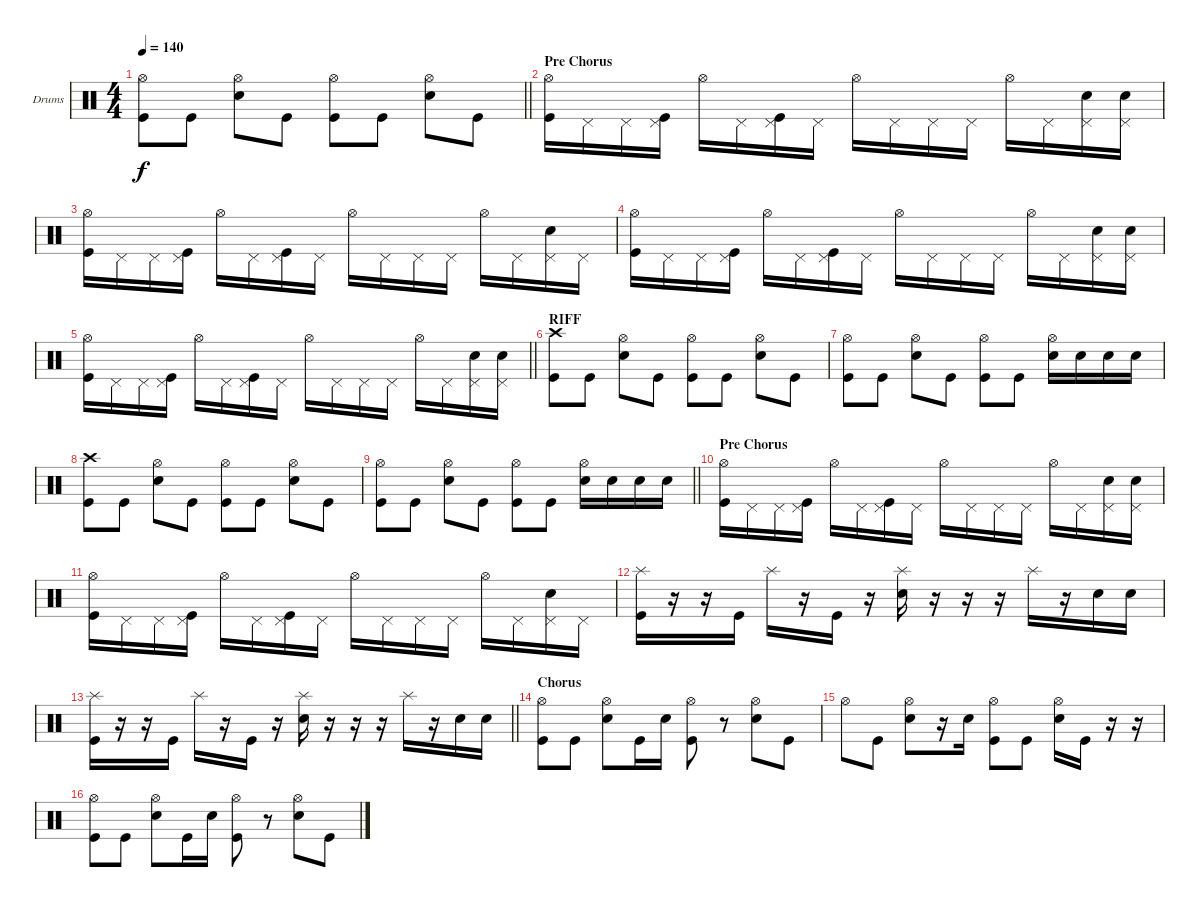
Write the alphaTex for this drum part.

\bracketExtendMode groupsimilarinstruments
\firstSystemTrackNameOrientation horizontal
\otherSystemsTrackNameOrientation horizontal
\track ("Dave McClain" "Drums") {instrument percussion}
\staff {score}
\articulation defaults
\ts (4 4)
\tempo 140
\clef neutral
\barLineRight lightlight
\ks c
("Hi-Hat (open)" "Kick (hit)").8{dy f} "Kick (hit)".8 ("Hi-Hat (open)" "Snare (hit) 2").8 "Kick (hit)".8 ("Hi-Hat (open)" "Kick (hit)").8 "Kick (hit)".8 ("Hi-Hat (open)" "Snare (hit) 2").8 "Kick (hit)".8 |
\section ("" "Pre Chorus")
("Hi-Hat (open)" "Kick (hit)").16 "Pedal Hi-Hat (hit)".16 "Pedal Hi-Hat (hit)".16 ("Pedal Hi-Hat (hit)" "Kick (hit)").16 "Hi-Hat (open)".16 "Pedal Hi-Hat (hit)".16 ("Pedal Hi-Hat (hit)" "Kick (hit)").16 "Pedal Hi-Hat (hit)".16 "Hi-Hat (open)".16 "Pedal Hi-Hat (hit)".16 "Pedal Hi-Hat (hit)".16 "Pedal Hi-Hat (hit)".16 "Hi-Hat (open)".16 "Pedal Hi-Hat (hit)".16 ("Pedal Hi-Hat (hit)" "Snare (hit) 2").16 ("Pedal Hi-Hat (hit)" "Snare (hit) 2").16 |
("Hi-Hat (open)" "Kick (hit)").16 "Pedal Hi-Hat (hit)".16 "Pedal Hi-Hat (hit)".16 ("Pedal Hi-Hat (hit)" "Kick (hit)").16 "Hi-Hat (open)".16 "Pedal Hi-Hat (hit)".16 ("Pedal Hi-Hat (hit)" "Kick (hit)").16 "Pedal Hi-Hat (hit)".16 "Hi-Hat (open)".16 "Pedal Hi-Hat (hit)".16 "Pedal Hi-Hat (hit)".16 "Pedal Hi-Hat (hit)".16 "Hi-Hat (open)".16 "Pedal Hi-Hat (hit)".16 ("Pedal Hi-Hat (hit)" "Snare (hit) 2").16 "Pedal Hi-Hat (hit)".16 |
("Hi-Hat (open)" "Kick (hit)").16 "Pedal Hi-Hat (hit)".16 "Pedal Hi-Hat (hit)".16 ("Pedal Hi-Hat (hit)" "Kick (hit)").16 "Hi-Hat (open)".16 "Pedal Hi-Hat (hit)".16 ("Pedal Hi-Hat (hit)" "Kick (hit)").16 "Pedal Hi-Hat (hit)".16 "Hi-Hat (open)".16 "Pedal Hi-Hat (hit)".16 "Pedal Hi-Hat (hit)".16 "Pedal Hi-Hat (hit)".16 "Hi-Hat (open)".16 "Pedal Hi-Hat (hit)".16 ("Pedal Hi-Hat (hit)" "Snare (hit) 2").16 ("Pedal Hi-Hat (hit)" "Snare (hit) 2").16 |
\barLineRight lightlight
("Hi-Hat (open)" "Kick (hit)").16 "Pedal Hi-Hat (hit)".16 "Pedal Hi-Hat (hit)".16 ("Pedal Hi-Hat (hit)" "Kick (hit)").16 "Hi-Hat (open)".16 "Pedal Hi-Hat (hit)".16 ("Pedal Hi-Hat (hit)" "Kick (hit)").16 "Pedal Hi-Hat (hit)".16 "Hi-Hat (open)".16 "Pedal Hi-Hat (hit)".16 "Pedal Hi-Hat (hit)".16 "Pedal Hi-Hat (hit)".16 "Hi-Hat (open)".16 "Pedal Hi-Hat (hit)".16 ("Pedal Hi-Hat (hit)" "Snare (hit) 2").16 ("Pedal Hi-Hat (hit)" "Snare (hit) 2").16 |
\section ("" "RIFF")
("Crash high (hit)" "Kick (hit)").8 "Kick (hit)".8 ("Hi-Hat (open)" "Snare (hit) 2").8 "Kick (hit)".8 ("Hi-Hat (open)" "Kick (hit)").8 "Kick (hit)".8 ("Hi-Hat (open)" "Snare (hit) 2").8 "Kick (hit)".8 |
("Hi-Hat (open)" "Kick (hit)").8 "Kick (hit)".8 ("Hi-Hat (open)" "Snare (hit) 2").8 "Kick (hit)".8 ("Hi-Hat (open)" "Kick (hit)").8 "Kick (hit)".8 ("Hi-Hat (open)" "Snare (hit) 2").16 "Snare (hit) 2".16 "Snare (hit) 2".16 "Snare (hit) 2".16 |
("Crash high (hit)" "Kick (hit)").8 "Kick (hit)".8 ("Hi-Hat (open)" "Snare (hit) 2").8 "Kick (hit)".8 ("Hi-Hat (open)" "Kick (hit)").8 "Kick (hit)".8 ("Hi-Hat (open)" "Snare (hit) 2").8 "Kick (hit)".8 |
\barLineRight lightlight
("Hi-Hat (open)" "Kick (hit)").8 "Kick (hit)".8 ("Hi-Hat (open)" "Snare (hit) 2").8 "Kick (hit)".8 ("Hi-Hat (open)" "Kick (hit)").8 "Kick (hit)".8 ("Hi-Hat (open)" "Snare (hit) 2").16 "Snare (hit) 2".16 "Snare (hit) 2".16 "Snare (hit) 2".16 |
\section ("" "Pre Chorus")
("Hi-Hat (open)" "Kick (hit)").16 "Pedal Hi-Hat (hit)".16 "Pedal Hi-Hat (hit)".16 ("Pedal Hi-Hat (hit)" "Kick (hit)").16 "Hi-Hat (open)".16 "Pedal Hi-Hat (hit)".16 ("Pedal Hi-Hat (hit)" "Kick (hit)").16 "Pedal Hi-Hat (hit)".16 "Hi-Hat (open)".16 "Pedal Hi-Hat (hit)".16 "Pedal Hi-Hat (hit)".16 "Pedal Hi-Hat (hit)".16 "Hi-Hat (open)".16 "Pedal Hi-Hat (hit)".16 ("Pedal Hi-Hat (hit)" "Snare (hit) 2").16 ("Pedal Hi-Hat (hit)" "Snare (hit) 2").16 |
("Hi-Hat (open)" "Kick (hit)").16 "Pedal Hi-Hat (hit)".16 "Pedal Hi-Hat (hit)".16 ("Pedal Hi-Hat (hit)" "Kick (hit)").16 "Hi-Hat (open)".16 "Pedal Hi-Hat (hit)".16 ("Pedal Hi-Hat (hit)" "Kick (hit)").16 "Pedal Hi-Hat (hit)".16 "Hi-Hat (open)".16 "Pedal Hi-Hat (hit)".16 "Pedal Hi-Hat (hit)".16 "Pedal Hi-Hat (hit)".16 "Hi-Hat (open)".16 "Pedal Hi-Hat (hit)".16 ("Pedal Hi-Hat (hit)" "Snare (hit) 2").16 "Pedal Hi-Hat (hit)".16 |
("Splash (hit)" "Kick (hit)").16 r.16 r.16 "Kick (hit)".16 "Splash (hit)".16 r.16 "Kick (hit)".16 r.16 ("Splash (hit)" "Snare (hit) 2").16 r.16 r.16 r.16 "Splash (hit)".16 r.16 "Snare (hit) 2".16 "Snare (hit) 2".16 |
\barLineRight lightlight
("Splash (hit)" "Kick (hit)").16 r.16 r.16 "Kick (hit)".16 "Splash (hit)".16 r.16 "Kick (hit)".16 r.16 ("Splash (hit)" "Snare (hit) 2").16 r.16 r.16 r.16 "Splash (hit)".16 r.16 "Snare (hit) 2".16 "Snare (hit) 2".16 |
\section ("" "Chorus")
("Hi-Hat (open)" "Kick (hit)").8 "Kick (hit)".8 ("Hi-Hat (open)" "Snare (hit) 2").8 "Kick (hit)".16 "Snare (hit) 2".16 ("Hi-Hat (open)" "Kick (hit)").8 r.8 ("Hi-Hat (open)" "Snare (hit) 2").8 "Kick (hit)".8 |
"Hi-Hat (open)".8 "Kick (hit)".8 ("Hi-Hat (open)" "Snare (hit) 2").8 r.16 "Snare (hit) 2".16 ("Hi-Hat (open)" "Kick (hit)").8 "Kick (hit)".8 ("Hi-Hat (open)" "Snare (hit) 2").16 "Kick (hit)".16 r.16 r.16 |
("Hi-Hat (open)" "Kick (hit)").8 "Kick (hit)".8 ("Hi-Hat (open)" "Snare (hit) 2").8 "Kick (hit)".16 "Snare (hit) 2".16 ("Hi-Hat (open)" "Kick (hit)").8 r.8 ("Hi-Hat (open)" "Snare (hit) 2").8 "Kick (hit)".8
